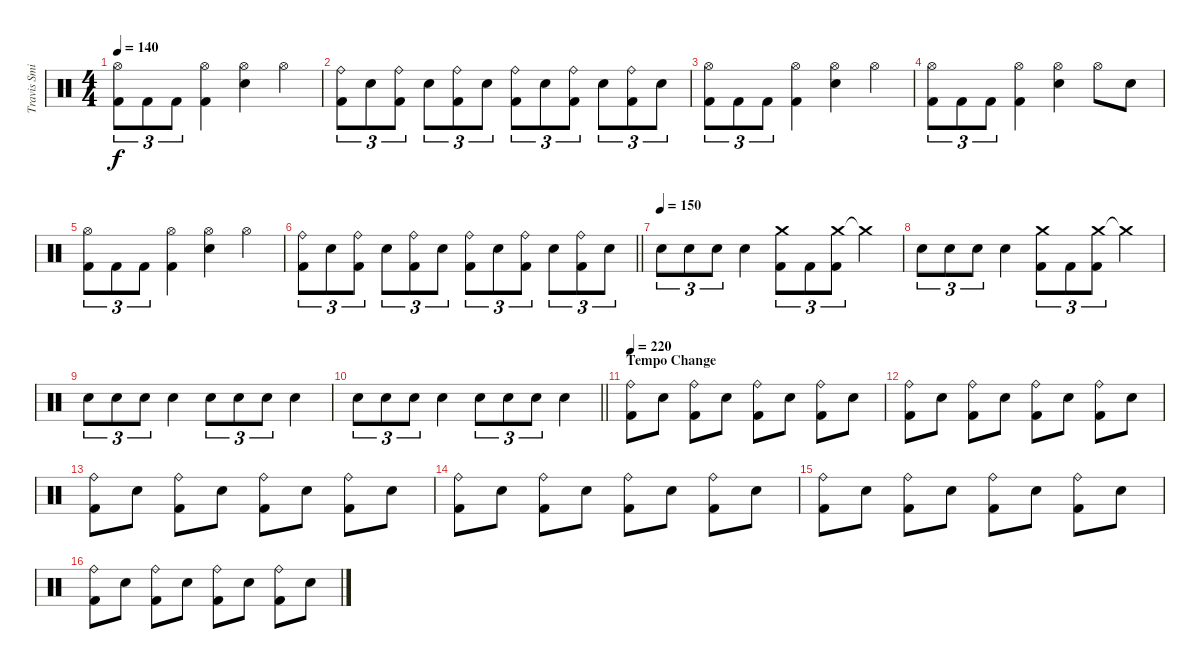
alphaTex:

\track ("Travis Smith" "Travis Smi") {instrument percussion}
\staff {score}
\articulation defaults
\ts (4 4)
\tempo 140
\clef neutral
\ks c
("Hi-Hat (open)" "Kick (hit) 2").8{tu (3 2) dy f} "Kick (hit) 2".8{tu (3 2)} "Kick (hit) 2".8{tu (3 2)} ("Hi-Hat (open)" "Kick (hit) 2").4 ("Hi-Hat (open)" "Electric Snare (hit)").4 "Hi-Hat (open)".4 |
("Ride (bell)" "Kick (hit) 2").8{tu (3 2)} "Electric Snare (hit)".8{tu (3 2)} ("Ride (bell)" "Kick (hit) 2").8{tu (3 2)} "Electric Snare (hit)".8{tu (3 2)} ("Ride (bell)" "Kick (hit) 2").8{tu (3 2)} "Electric Snare (hit)".8{tu (3 2)} ("Ride (bell)" "Kick (hit) 2").8{tu (3 2)} "Electric Snare (hit)".8{tu (3 2)} ("Ride (bell)" "Kick (hit) 2").8{tu (3 2)} "Electric Snare (hit)".8{tu (3 2)} ("Ride (bell)" "Kick (hit) 2").8{tu (3 2)} "Electric Snare (hit)".8{tu (3 2)} |
("Hi-Hat (open)" "Kick (hit) 2").8{tu (3 2)} "Kick (hit) 2".8{tu (3 2)} "Kick (hit) 2".8{tu (3 2)} ("Hi-Hat (open)" "Kick (hit) 2").4 ("Hi-Hat (open)" "Electric Snare (hit)").4 "Hi-Hat (open)".4 |
("Hi-Hat (open)" "Kick (hit) 2").8{tu (3 2)} "Kick (hit) 2".8{tu (3 2)} "Kick (hit) 2".8{tu (3 2)} ("Hi-Hat (open)" "Kick (hit) 2").4 ("Hi-Hat (open)" "Electric Snare (hit)").4 "Hi-Hat (open)".8 "Electric Snare (hit)".8 |
("Hi-Hat (open)" "Kick (hit) 2").8{tu (3 2)} "Kick (hit) 2".8{tu (3 2)} "Kick (hit) 2".8{tu (3 2)} ("Hi-Hat (open)" "Kick (hit) 2").4 ("Hi-Hat (open)" "Electric Snare (hit)").4 "Hi-Hat (open)".4 |
\barLineRight lightlight
("Ride (bell)" "Kick (hit) 2").8{tu (3 2)} "Electric Snare (hit)".8{tu (3 2)} ("Ride (bell)" "Kick (hit) 2").8{tu (3 2)} "Electric Snare (hit)".8{tu (3 2)} ("Ride (bell)" "Kick (hit) 2").8{tu (3 2)} "Electric Snare (hit)".8{tu (3 2)} ("Ride (bell)" "Kick (hit) 2").8{tu (3 2)} "Electric Snare (hit)".8{tu (3 2)} ("Ride (bell)" "Kick (hit) 2").8{tu (3 2)} "Electric Snare (hit)".8{tu (3 2)} ("Ride (bell)" "Kick (hit) 2").8{tu (3 2)} "Electric Snare (hit)".8{tu (3 2)} |
\tempo (150)
"Electric Snare (hit)".8{tu (3 2)} "Electric Snare (hit)".8{tu (3 2)} "Electric Snare (hit)".8{tu (3 2)} "Electric Snare (hit)".4 ("Crash medium (hit)" "Kick (hit) 2").8{tu (3 2)} "Kick (hit) 2".8{tu (3 2)} ("Crash medium (hit)" "Kick (hit) 2").8{tu (3 2)} "Crash medium (hit)"{t}.4 |
"Electric Snare (hit)".8{tu (3 2)} "Electric Snare (hit)".8{tu (3 2)} "Electric Snare (hit)".8{tu (3 2)} "Electric Snare (hit)".4 ("Crash medium (hit)" "Kick (hit) 2").8{tu (3 2)} "Kick (hit) 2".8{tu (3 2)} ("Crash medium (hit)" "Kick (hit) 2").8{tu (3 2)} "Crash medium (hit)"{t}.4 |
"Electric Snare (hit)".8{tu (3 2)} "Electric Snare (hit)".8{tu (3 2)} "Electric Snare (hit)".8{tu (3 2)} "Electric Snare (hit)".4 "Electric Snare (hit)".8{tu (3 2)} "Electric Snare (hit)".8{tu (3 2)} "Electric Snare (hit)".8{tu (3 2)} "Electric Snare (hit)".4 |
\barLineRight lightlight "Electric Snare (hit)".8{tu (3 2)} "Electric Snare (hit)".8{tu (3 2)} "Electric Snare (hit)".8{tu (3 2)} "Electric Snare (hit)".4 "Electric Snare (hit)".8{tu (3 2)} "Electric Snare (hit)".8{tu (3 2)} "Electric Snare (hit)".8{tu (3 2)} "Electric Snare (hit)".4
|
\section ("" "Tempo Change")
\tempo 220
("Ride (bell)" "Kick (hit) 2").8 "Electric Snare (hit)".8 ("Ride (bell)" "Kick (hit) 2").8 "Electric Snare (hit)".8 ("Ride (bell)" "Kick (hit) 2").8 "Electric Snare (hit)".8 ("Ride (bell)" "Kick (hit) 2").8 "Electric Snare (hit)".8 |
("Ride (bell)" "Kick (hit) 2").8 "Electric Snare (hit)".8 ("Ride (bell)" "Kick (hit) 2").8 "Electric Snare (hit)".8 ("Ride (bell)" "Kick (hit) 2").8 "Electric Snare (hit)".8 ("Ride (bell)" "Kick (hit) 2").8 "Electric Snare (hit)".8 |
("Ride (bell)" "Kick (hit) 2").8 "Electric Snare (hit)".8 ("Ride (bell)" "Kick (hit) 2").8 "Electric Snare (hit)".8 ("Ride (bell)" "Kick (hit) 2").8 "Electric Snare (hit)".8 ("Ride (bell)" "Kick (hit) 2").8 "Electric Snare (hit)".8 |
("Ride (bell)" "Kick (hit) 2").8 "Electric Snare (hit)".8 ("Ride (bell)" "Kick (hit) 2").8 "Electric Snare (hit)".8 ("Ride (bell)" "Kick (hit) 2").8 "Electric Snare (hit)".8 ("Ride (bell)" "Kick (hit) 2").8 "Electric Snare (hit)".8 |
("Ride (bell)" "Kick (hit) 2").8 "Electric Snare (hit)".8 ("Ride (bell)" "Kick (hit) 2").8 "Electric Snare (hit)".8 ("Ride (bell)" "Kick (hit) 2").8 "Electric Snare (hit)".8 ("Ride (bell)" "Kick (hit) 2").8 "Electric Snare (hit)".8 |
("Ride (bell)" "Kick (hit) 2").8 "Electric Snare (hit)".8 ("Ride (bell)" "Kick (hit) 2").8 "Electric Snare (hit)".8 ("Ride (bell)" "Kick (hit) 2").8 "Electric Snare (hit)".8 ("Ride (bell)" "Kick (hit) 2").8 "Electric Snare (hit)".8
